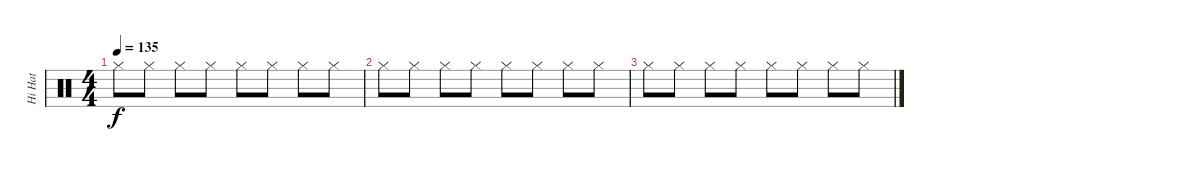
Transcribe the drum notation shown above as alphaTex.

\track ("Hi Hat" "Hi Hat") {instrument percussion}
\staff {score}
\articulation defaults
\ts (4 4)
\tempo 135
\clef neutral
\ks c "Hi-Hat (closed)".8{dy f} "Hi-Hat (closed)".8 "Hi-Hat (closed)".8 "Hi-Hat (closed)".8 "Hi-Hat (closed)".8 "Hi-Hat (closed)".8 "Hi-Hat (closed)".8 "Hi-Hat (closed)".8
|
"Hi-Hat (closed)".8 "Hi-Hat (closed)".8 "Hi-Hat (closed)".8 "Hi-Hat (closed)".8 "Hi-Hat (closed)".8 "Hi-Hat (closed)".8 "Hi-Hat (closed)".8 "Hi-Hat (closed)".8 |
"Hi-Hat (closed)".8 "Hi-Hat (closed)".8 "Hi-Hat (closed)".8 "Hi-Hat (closed)".8 "Hi-Hat (closed)".8 "Hi-Hat (closed)".8 "Hi-Hat (closed)".8 "Hi-Hat (closed)".8
